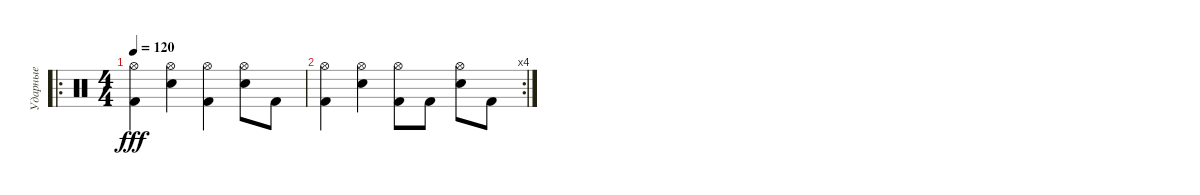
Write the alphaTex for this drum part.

\track ("Ударные" "Ударные") {instrument percussion}
\staff {score}
\articulation defaults
\ro
\ts (4 4)
\tempo 120
\clef neutral
\ks c
("Hi-Hat (open)" "Kick (hit) 2").4{dy fff} ("Hi-Hat (open)" "Electric Snare (hit)").4 ("Hi-Hat (open)" "Kick (hit) 2").4 ("Hi-Hat (open)" "Electric Snare (hit)").8 "Kick (hit) 2".8 |
\rc 4
("Hi-Hat (open)" "Kick (hit) 2").4 ("Hi-Hat (open)" "Electric Snare (hit)").4 ("Hi-Hat (open)" "Kick (hit) 2").8 "Kick (hit) 2".8 ("Hi-Hat (open)" "Electric Snare (hit)").8 "Kick (hit) 2".8
